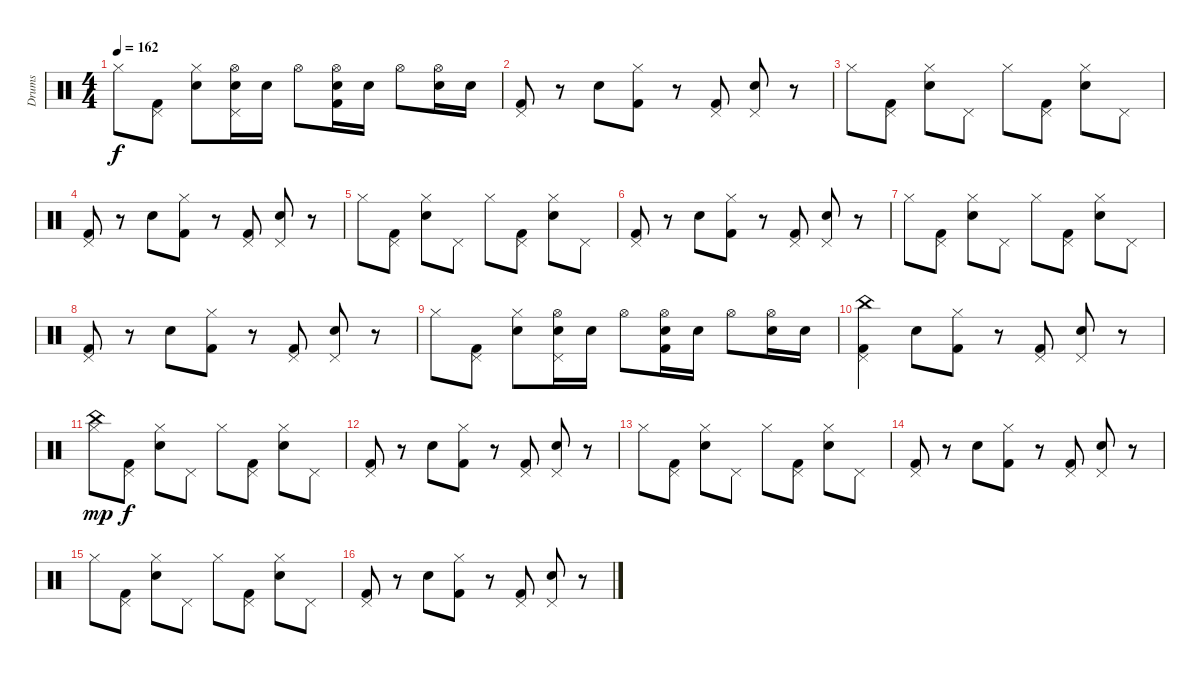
\track ("Drums" "Drums") {instrument percussion}
\staff {score}
\articulation defaults
\ts (4 4)
\tempo 162
\clef neutral
\ks c "Hi-Hat (closed)".8{dy f}
("Kick (hit) 2" "Pedal Hi-Hat (hit)").8 ("Electric Snare (hit)" "Hi-Hat (closed)").8 ("Hi-Hat (open)" "Electric Snare (hit)" "Pedal Hi-Hat (hit)").16 "Electric Snare (hit)".16 "Hi-Hat (open)".8 ("Hi-Hat (open)" "Electric Snare (hit)" "Kick (hit) 2").16 "Electric Snare (hit)".16 "Hi-Hat (open)".8 ("Hi-Hat (open)" "Electric Snare (hit)").16 "Electric Snare (hit)".16 |
("Kick (hit) 2" "Pedal Hi-Hat (hit)").8 r.8 "Electric Snare (hit)".8 ("Kick (hit) 2" "Hi-Hat (closed)").8 r.8 ("Kick (hit) 2" "Pedal Hi-Hat (hit)").8 ("Pedal Hi-Hat (hit)" "Electric Snare (hit)").8 r.8 |
"Hi-Hat (closed)".8 ("Kick (hit) 2" "Pedal Hi-Hat (hit)").8 ("Electric Snare (hit)" "Hi-Hat (closed)").8 "Pedal Hi-Hat (hit)".8 "Hi-Hat (closed)".8 ("Kick (hit) 2" "Pedal Hi-Hat (hit)").8 ("Electric Snare (hit)" "Hi-Hat (closed)").8 "Pedal Hi-Hat (hit)".8 |
("Kick (hit) 2" "Pedal Hi-Hat (hit)").8 r.8 "Electric Snare (hit)".8 ("Kick (hit) 2" "Hi-Hat (closed)").8 r.8 ("Kick (hit) 2" "Pedal Hi-Hat (hit)").8 ("Pedal Hi-Hat (hit)" "Electric Snare (hit)").8 r.8 |
"Hi-Hat (closed)".8 ("Kick (hit) 2" "Pedal Hi-Hat (hit)").8 ("Electric Snare (hit)" "Hi-Hat (closed)").8 "Pedal Hi-Hat (hit)".8 "Hi-Hat (closed)".8 ("Kick (hit) 2" "Pedal Hi-Hat (hit)").8 ("Electric Snare (hit)" "Hi-Hat (closed)").8 "Pedal Hi-Hat (hit)".8 |
("Kick (hit) 2" "Pedal Hi-Hat (hit)").8 r.8 "Electric Snare (hit)".8 ("Kick (hit) 2" "Hi-Hat (closed)").8 r.8 ("Kick (hit) 2" "Pedal Hi-Hat (hit)").8 ("Pedal Hi-Hat (hit)" "Electric Snare (hit)").8 r.8 |
"Hi-Hat (closed)".8 ("Kick (hit) 2" "Pedal Hi-Hat (hit)").8 ("Electric Snare (hit)" "Hi-Hat (closed)").8 "Pedal Hi-Hat (hit)".8 "Hi-Hat (closed)".8 ("Kick (hit) 2" "Pedal Hi-Hat (hit)").8 ("Electric Snare (hit)" "Hi-Hat (closed)").8 "Pedal Hi-Hat (hit)".8 |
("Kick (hit) 2" "Pedal Hi-Hat (hit)").8 r.8 "Electric Snare (hit)".8 ("Kick (hit) 2" "Hi-Hat (closed)").8 r.8 ("Kick (hit) 2" "Pedal Hi-Hat (hit)").8 ("Pedal Hi-Hat (hit)" "Electric Snare (hit)").8 r.8 |
"Hi-Hat (closed)".8 ("Kick (hit) 2" "Pedal Hi-Hat (hit)").8 ("Electric Snare (hit)" "Hi-Hat (closed)").8 ("Hi-Hat (open)" "Electric Snare (hit)" "Pedal Hi-Hat (hit)").16 "Electric Snare (hit)".16 "Hi-Hat (open)".8 ("Hi-Hat (open)" "Electric Snare (hit)" "Kick (hit) 2").16 "Electric Snare (hit)".16 "Hi-Hat (open)".8 ("Hi-Hat (open)" "Electric Snare (hit)").16 "Electric Snare (hit)".16 |
("China (hit)" "Kick (hit) 2" "Pedal Hi-Hat (hit)").4 "Electric Snare (hit)".8 ("Kick (hit) 2" "Hi-Hat (closed)").8 r.8 ("Kick (hit) 2" "Pedal Hi-Hat (hit)").8 ("Pedal Hi-Hat (hit)" "Electric Snare (hit)").8 r.8 |
("China (hit)" "Hi-Hat (closed)").8{dy mp} ("Kick (hit) 2" "Pedal Hi-Hat (hit)").8{dy f} ("Electric Snare (hit)" "Hi-Hat (closed)").8 "Pedal Hi-Hat (hit)".8 "Hi-Hat (closed)".8 ("Kick (hit) 2" "Pedal Hi-Hat (hit)").8 ("Electric Snare (hit)" "Hi-Hat (closed)").8 "Pedal Hi-Hat (hit)".8 |
("Kick (hit) 2" "Pedal Hi-Hat (hit)").8 r.8 "Electric Snare (hit)".8 ("Kick (hit) 2" "Hi-Hat (closed)").8 r.8 ("Kick (hit) 2" "Pedal Hi-Hat (hit)").8 ("Pedal Hi-Hat (hit)" "Electric Snare (hit)").8 r.8 |
"Hi-Hat (closed)".8 ("Kick (hit) 2" "Pedal Hi-Hat (hit)").8 ("Electric Snare (hit)" "Hi-Hat (closed)").8 "Pedal Hi-Hat (hit)".8 "Hi-Hat (closed)".8 ("Kick (hit) 2" "Pedal Hi-Hat (hit)").8 ("Electric Snare (hit)" "Hi-Hat (closed)").8 "Pedal Hi-Hat (hit)".8 |
("Kick (hit) 2" "Pedal Hi-Hat (hit)").8 r.8 "Electric Snare (hit)".8 ("Kick (hit) 2" "Hi-Hat (closed)").8 r.8 ("Kick (hit) 2" "Pedal Hi-Hat (hit)").8 ("Pedal Hi-Hat (hit)" "Electric Snare (hit)").8 r.8 |
"Hi-Hat (closed)".8 ("Kick (hit) 2" "Pedal Hi-Hat (hit)").8 ("Electric Snare (hit)" "Hi-Hat (closed)").8 "Pedal Hi-Hat (hit)".8 "Hi-Hat (closed)".8 ("Kick (hit) 2" "Pedal Hi-Hat (hit)").8 ("Electric Snare (hit)" "Hi-Hat (closed)").8 "Pedal Hi-Hat (hit)".8 |
("Kick (hit) 2" "Pedal Hi-Hat (hit)").8 r.8 "Electric Snare (hit)".8 ("Kick (hit) 2" "Hi-Hat (closed)").8 r.8 ("Kick (hit) 2" "Pedal Hi-Hat (hit)").8 ("Pedal Hi-Hat (hit)" "Electric Snare (hit)").8 r.8
